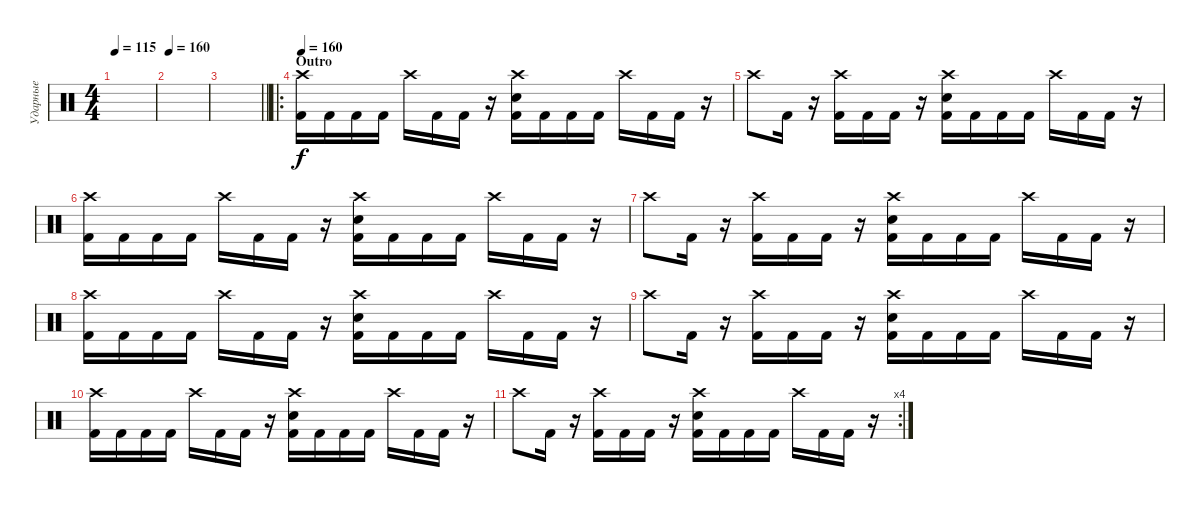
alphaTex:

\track ("Ударные" "Ударные") {instrument percussion}
\staff {score}
\articulation defaults
\ts (4 4)
\tempo 115
\clef neutral
\ks c
|
\tempo 160
|
\barLineRight lightlight
|
\ro
\section ("" "Outro")
\tempo 160
("Crash high (hit)" "Kick (hit) 2").16 "Kick (hit) 2".16 "Kick (hit) 2".16 "Kick (hit) 2".16 "Crash high (hit)".16 "Kick (hit) 2".16 "Kick (hit) 2".16 r.16 ("Crash high (hit)" "Electric Snare (hit)" "Kick (hit) 2").16 "Kick (hit) 2".16 "Kick (hit) 2".16 "Kick (hit) 2".16 "Crash high (hit)".16 "Kick (hit) 2".16 "Kick (hit) 2".16 r.16 |
"Crash high (hit)".8 "Kick (hit) 2".16 r.16 ("Crash high (hit)" "Kick (hit) 2").16 "Kick (hit) 2".16 "Kick (hit) 2".16 r.16 ("Crash high (hit)" "Electric Snare (hit)" "Kick (hit) 2").16 "Kick (hit) 2".16 "Kick (hit) 2".16 "Kick (hit) 2".16 "Crash high (hit)".16 "Kick (hit) 2".16 "Kick (hit) 2".16 r.16 |
("Crash high (hit)" "Kick (hit) 2").16 "Kick (hit) 2".16 "Kick (hit) 2".16 "Kick (hit) 2".16 "Crash high (hit)".16 "Kick (hit) 2".16 "Kick (hit) 2".16 r.16 ("Crash high (hit)" "Electric Snare (hit)" "Kick (hit) 2").16 "Kick (hit) 2".16 "Kick (hit) 2".16 "Kick (hit) 2".16 "Crash high (hit)".16 "Kick (hit) 2".16 "Kick (hit) 2".16 r.16 |
"Crash high (hit)".8 "Kick (hit) 2".16 r.16 ("Crash high (hit)" "Kick (hit) 2").16 "Kick (hit) 2".16 "Kick (hit) 2".16 r.16 ("Crash high (hit)" "Electric Snare (hit)" "Kick (hit) 2").16 "Kick (hit) 2".16 "Kick (hit) 2".16 "Kick (hit) 2".16 "Crash high (hit)".16 "Kick (hit) 2".16 "Kick (hit) 2".16 r.16 |
("Crash high (hit)" "Kick (hit) 2").16 "Kick (hit) 2".16 "Kick (hit) 2".16 "Kick (hit) 2".16 "Crash high (hit)".16 "Kick (hit) 2".16 "Kick (hit) 2".16 r.16 ("Crash high (hit)" "Electric Snare (hit)" "Kick (hit) 2").16 "Kick (hit) 2".16 "Kick (hit) 2".16 "Kick (hit) 2".16 "Crash high (hit)".16 "Kick (hit) 2".16 "Kick (hit) 2".16 r.16 |
"Crash high (hit)".8 "Kick (hit) 2".16 r.16 ("Crash high (hit)" "Kick (hit) 2").16 "Kick (hit) 2".16 "Kick (hit) 2".16 r.16 ("Crash high (hit)" "Electric Snare (hit)" "Kick (hit) 2").16 "Kick (hit) 2".16 "Kick (hit) 2".16 "Kick (hit) 2".16 "Crash high (hit)".16 "Kick (hit) 2".16 "Kick (hit) 2".16 r.16 |
("Crash high (hit)" "Kick (hit) 2").16 "Kick (hit) 2".16 "Kick (hit) 2".16 "Kick (hit) 2".16 "Crash high (hit)".16 "Kick (hit) 2".16 "Kick (hit) 2".16 r.16 ("Crash high (hit)" "Electric Snare (hit)" "Kick (hit) 2").16 "Kick (hit) 2".16 "Kick (hit) 2".16 "Kick (hit) 2".16 "Crash high (hit)".16 "Kick (hit) 2".16 "Kick (hit) 2".16 r.16 |
\rc 4 "Crash high (hit)".8 "Kick (hit) 2".16
r.16 ("Crash high (hit)" "Kick (hit) 2").16 "Kick (hit) 2".16 "Kick (hit) 2".16 r.16 ("Crash high (hit)" "Electric Snare (hit)" "Kick (hit) 2").16 "Kick (hit) 2".16 "Kick (hit) 2".16 "Kick (hit) 2".16 "Crash high (hit)".16 "Kick (hit) 2".16 "Kick (hit) 2".16 r.16
